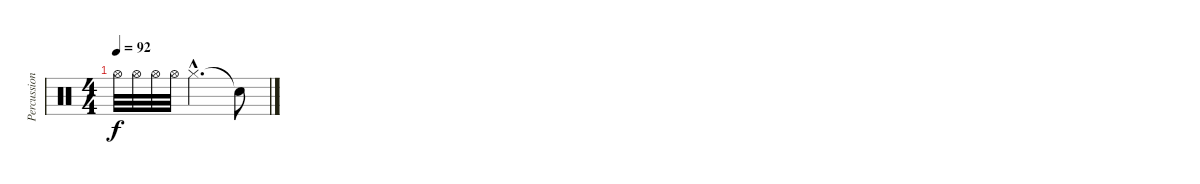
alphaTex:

\track ("Percussions (Etn)" "Percussion") {instrument percussion}
\staff {score}
\articulation defaults
\ts (4 4)
\tempo 92
\clef neutral
\ks c "Hi-Hat (open)".32{dy f} "Hi-Hat (open)".32 "Hi-Hat (open)".32 "Hi-Hat (open)".32 "Hi-Hat (closed)"{hac}.2{d} "Snare (hit)"{t}.8
